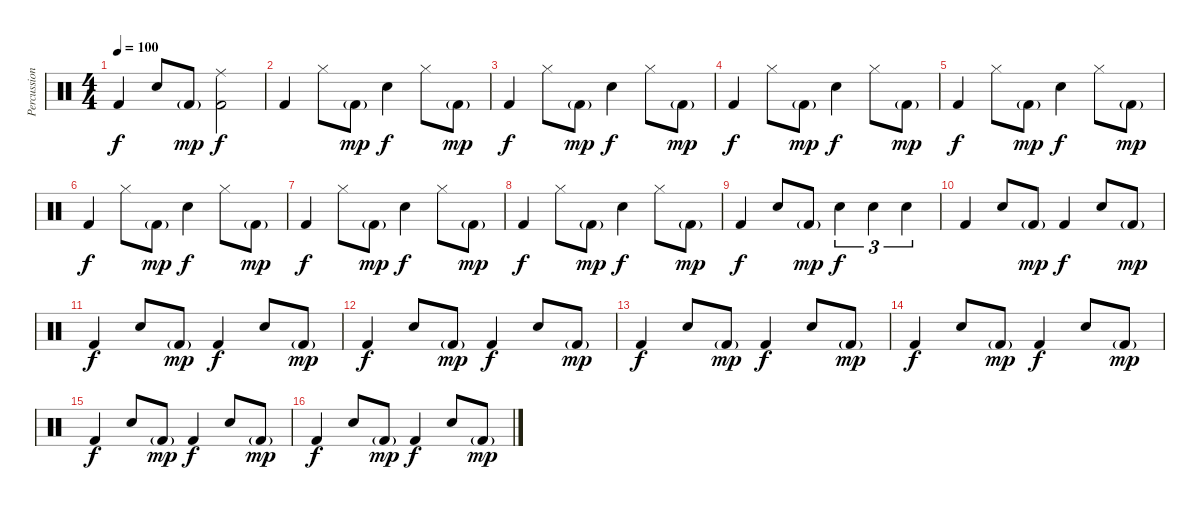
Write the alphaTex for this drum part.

\track ("Percussion" "Percussion") {instrument percussion}
\staff {score}
\articulation defaults
\ts (4 4)
\tempo 100
\clef neutral
\ks c "Kick (hit) 2".4{dy f} "Snare (hit) 2".8 "Kick (hit) 2"{g}.8{dy mp}
("Ride (middle)" "Kick (hit) 2").2{dy f} |
"Kick (hit) 2".4 "Hi-Hat (closed)".8 "Kick (hit) 2"{g}.8{dy mp} "Snare (hit) 2".4{dy f} "Hi-Hat (closed)".8 "Kick (hit) 2"{g}.8{dy mp} |
"Kick (hit) 2".4{dy f} "Hi-Hat (closed)".8 "Kick (hit) 2"{g}.8{dy mp} "Snare (hit) 2".4{dy f} "Hi-Hat (closed)".8 "Kick (hit) 2"{g}.8{dy mp} |
"Kick (hit) 2".4{dy f} "Hi-Hat (closed)".8 "Kick (hit) 2"{g}.8{dy mp} "Snare (hit) 2".4{dy f} "Hi-Hat (closed)".8 "Kick (hit) 2"{g}.8{dy mp} |
"Kick (hit) 2".4{dy f} "Hi-Hat (closed)".8 "Kick (hit) 2"{g}.8{dy mp} "Snare (hit) 2".4{dy f} "Hi-Hat (closed)".8 "Kick (hit) 2"{g}.8{dy mp} |
"Kick (hit) 2".4{dy f} "Hi-Hat (closed)".8 "Kick (hit) 2"{g}.8{dy mp} "Snare (hit) 2".4{dy f} "Hi-Hat (closed)".8 "Kick (hit) 2"{g}.8{dy mp} |
"Kick (hit) 2".4{dy f} "Hi-Hat (closed)".8 "Kick (hit) 2"{g}.8{dy mp} "Snare (hit) 2".4{dy f} "Hi-Hat (closed)".8 "Kick (hit) 2"{g}.8{dy mp} |
"Kick (hit) 2".4{dy f} "Hi-Hat (closed)".8 "Kick (hit) 2"{g}.8{dy mp} "Snare (hit) 2".4{dy f} "Hi-Hat (closed)".8 "Kick (hit) 2"{g}.8{dy mp} |
"Kick (hit) 2".4{dy f} "Snare (hit) 2".8 "Kick (hit) 2"{g}.8{dy mp} "Snare (hit) 2".4{tu (3 2) dy f} "Snare (hit) 2".4{tu (3 2)} "Snare (hit) 2".4{tu (3 2)} |
"Kick (hit) 2".4 "Snare (hit) 2".8 "Kick (hit) 2"{g}.8{dy mp} "Kick (hit) 2".4{dy f} "Snare (hit) 2".8 "Kick (hit) 2"{g}.8{dy mp} |
"Kick (hit) 2".4{dy f} "Snare (hit) 2".8 "Kick (hit) 2"{g}.8{dy mp} "Kick (hit) 2".4{dy f} "Snare (hit) 2".8 "Kick (hit) 2"{g}.8{dy mp} |
"Kick (hit) 2".4{dy f} "Snare (hit) 2".8 "Kick (hit) 2"{g}.8{dy mp} "Kick (hit) 2".4{dy f} "Snare (hit) 2".8 "Kick (hit) 2"{g}.8{dy mp} |
"Kick (hit) 2".4{dy f} "Snare (hit) 2".8 "Kick (hit) 2"{g}.8{dy mp} "Kick (hit) 2".4{dy f} "Snare (hit) 2".8 "Kick (hit) 2"{g}.8{dy mp} |
"Kick (hit) 2".4{dy f} "Snare (hit) 2".8 "Kick (hit) 2"{g}.8{dy mp} "Kick (hit) 2".4{dy f} "Snare (hit) 2".8 "Kick (hit) 2"{g}.8{dy mp} |
"Kick (hit) 2".4{dy f} "Snare (hit) 2".8 "Kick (hit) 2"{g}.8{dy mp} "Kick (hit) 2".4{dy f} "Snare (hit) 2".8 "Kick (hit) 2"{g}.8{dy mp} |
"Kick (hit) 2".4{dy f} "Snare (hit) 2".8 "Kick (hit) 2"{g}.8{dy mp} "Kick (hit) 2".4{dy f} "Snare (hit) 2".8 "Kick (hit) 2"{g}.8{dy mp}
